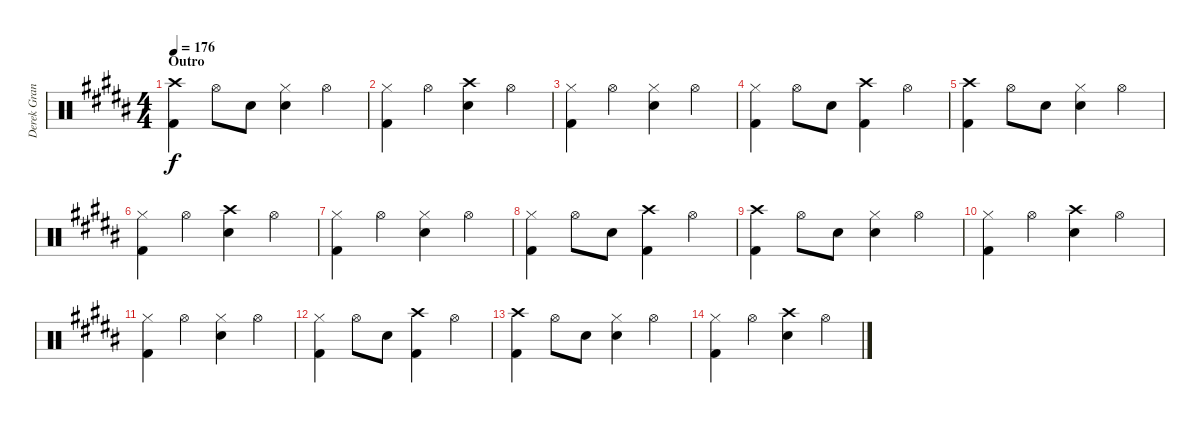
\track ("Derek Grant - Drums" "Derek Gran") {instrument percussion}
\staff {score}
\articulation defaults
\ts (4 4)
\section ("" "Outro")
\tempo 176
\clef neutral
\ks b
("Crash high (hit)" "Kick (hit) 2").4{dy f} "Hi-Hat (open)".8 "Snare (hit) 2".8 ("Snare (hit) 2" "Hi-Hat (closed)").4 "Hi-Hat (open)".4 |
("Hi-Hat (closed)" "Kick (hit) 2").4 "Hi-Hat (open)".4 ("Crash high (hit)" "Snare (hit) 2").4 "Hi-Hat (open)".4 |
("Hi-Hat (closed)" "Kick (hit) 2").4 "Hi-Hat (open)".4 ("Snare (hit) 2" "Hi-Hat (closed)").4 "Hi-Hat (open)".4 |
("Hi-Hat (closed)" "Kick (hit) 2").4 "Hi-Hat (open)".8 "Snare (hit) 2".8 ("Crash high (hit)" "Kick (hit) 2").4 "Hi-Hat (open)".4 |
("Crash high (hit)" "Kick (hit) 2").4 "Hi-Hat (open)".8 "Snare (hit) 2".8 ("Snare (hit) 2" "Hi-Hat (closed)").4 "Hi-Hat (open)".4 |
("Hi-Hat (closed)" "Kick (hit) 2").4 "Hi-Hat (open)".4 ("Crash high (hit)" "Snare (hit) 2").4 "Hi-Hat (open)".4 |
("Hi-Hat (closed)" "Kick (hit) 2").4 "Hi-Hat (open)".4 ("Snare (hit) 2" "Hi-Hat (closed)").4 "Hi-Hat (open)".4 |
("Hi-Hat (closed)" "Kick (hit) 2").4 "Hi-Hat (open)".8 "Snare (hit) 2".8 ("Crash high (hit)" "Kick (hit) 2").4 "Hi-Hat (open)".4 |
("Crash high (hit)" "Kick (hit) 2").4{volume 2} "Hi-Hat (open)".8 "Snare (hit) 2".8 ("Snare (hit) 2" "Hi-Hat (closed)").4 "Hi-Hat (open)".4 |
("Hi-Hat (closed)" "Kick (hit) 2").4 "Hi-Hat (open)".4 ("Crash high (hit)" "Snare (hit) 2").4 "Hi-Hat (open)".4 |
("Hi-Hat (closed)" "Kick (hit) 2").4 "Hi-Hat (open)".4 ("Snare (hit) 2" "Hi-Hat (closed)").4 "Hi-Hat (open)".4 |
("Hi-Hat (closed)" "Kick (hit) 2").4 "Hi-Hat (open)".8 "Snare (hit) 2".8 ("Crash high (hit)" "Kick (hit) 2").4 "Hi-Hat (open)".4 |
("Crash high (hit)" "Kick (hit) 2").4{volume 0} "Hi-Hat (open)".8 "Snare (hit) 2".8 ("Snare (hit) 2" "Hi-Hat (closed)").4 "Hi-Hat (open)".4 |
("Hi-Hat (closed)" "Kick (hit) 2").4 "Hi-Hat (open)".4 ("Crash high (hit)" "Snare (hit) 2").4 "Hi-Hat (open)".4
